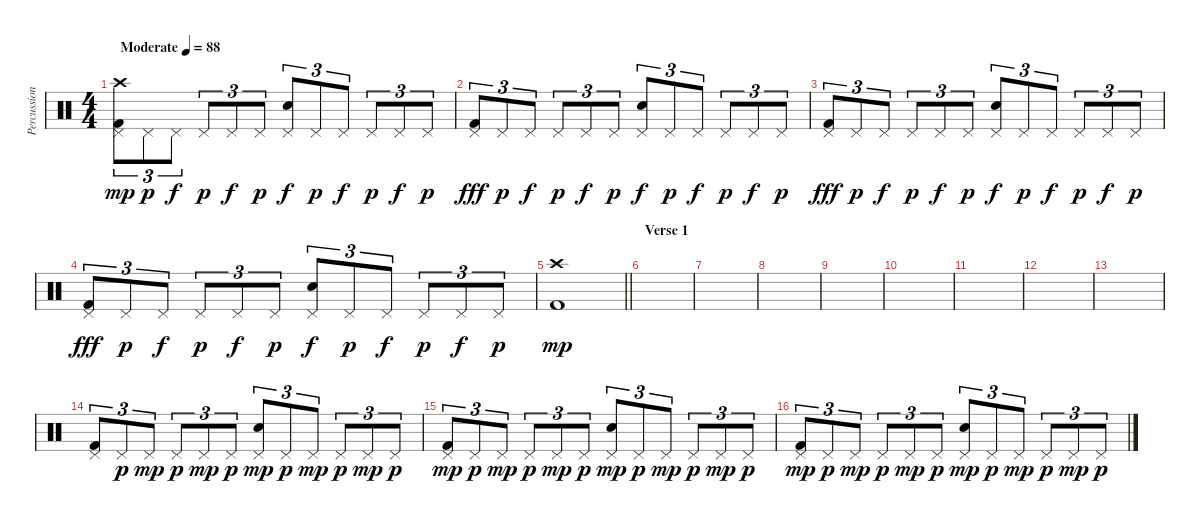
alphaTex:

\track ("Percussion" "Percussion") {instrument percussion}
\staff {score}
\articulation defaults
\ts (4 4)
\tempo (88 "Moderate")
\clef neutral
\ks c
("Kick (hit) 2" "Pedal Hi-Hat (hit)" "Crash high (hit)").8{tu (3 2) dy mp} "Pedal Hi-Hat (hit)".8{tu (3 2) dy p} "Pedal Hi-Hat (hit)".8{tu (3 2) dy f} "Pedal Hi-Hat (hit)".8{tu (3 2) dy p} "Pedal Hi-Hat (hit)".8{tu (3 2) dy f} "Pedal Hi-Hat (hit)".8{tu (3 2) dy p} ("Electric Snare (hit)" "Pedal Hi-Hat (hit)").8{tu (3 2) dy f} "Pedal Hi-Hat (hit)".8{tu (3 2) dy p} "Pedal Hi-Hat (hit)".8{tu (3 2) dy f} "Pedal Hi-Hat (hit)".8{tu (3 2) dy p} "Pedal Hi-Hat (hit)".8{tu (3 2) dy f} "Pedal Hi-Hat (hit)".8{tu (3 2) dy p} |
("Kick (hit) 2" "Pedal Hi-Hat (hit)").8{tu (3 2) dy fff} "Pedal Hi-Hat (hit)".8{tu (3 2) dy p} "Pedal Hi-Hat (hit)".8{tu (3 2) dy f} "Pedal Hi-Hat (hit)".8{tu (3 2) dy p} "Pedal Hi-Hat (hit)".8{tu (3 2) dy f} "Pedal Hi-Hat (hit)".8{tu (3 2) dy p} ("Electric Snare (hit)" "Pedal Hi-Hat (hit)").8{tu (3 2) dy f} "Pedal Hi-Hat (hit)".8{tu (3 2) dy p} "Pedal Hi-Hat (hit)".8{tu (3 2) dy f} "Pedal Hi-Hat (hit)".8{tu (3 2) dy p} "Pedal Hi-Hat (hit)".8{tu (3 2) dy f} "Pedal Hi-Hat (hit)".8{tu (3 2) dy p} |
("Kick (hit) 2" "Pedal Hi-Hat (hit)").8{tu (3 2) dy fff} "Pedal Hi-Hat (hit)".8{tu (3 2) dy p} "Pedal Hi-Hat (hit)".8{tu (3 2) dy f} "Pedal Hi-Hat (hit)".8{tu (3 2) dy p} "Pedal Hi-Hat (hit)".8{tu (3 2) dy f} "Pedal Hi-Hat (hit)".8{tu (3 2) dy p} ("Electric Snare (hit)" "Pedal Hi-Hat (hit)").8{tu (3 2) dy f} "Pedal Hi-Hat (hit)".8{tu (3 2) dy p} "Pedal Hi-Hat (hit)".8{tu (3 2) dy f} "Pedal Hi-Hat (hit)".8{tu (3 2) dy p} "Pedal Hi-Hat (hit)".8{tu (3 2) dy f} "Pedal Hi-Hat (hit)".8{tu (3 2) dy p} |
("Kick (hit) 2" "Pedal Hi-Hat (hit)").8{tu (3 2) dy fff} "Pedal Hi-Hat (hit)".8{tu (3 2) dy p} "Pedal Hi-Hat (hit)".8{tu (3 2) dy f} "Pedal Hi-Hat (hit)".8{tu (3 2) dy p} "Pedal Hi-Hat (hit)".8{tu (3 2) dy f} "Pedal Hi-Hat (hit)".8{tu (3 2) dy p} ("Electric Snare (hit)" "Pedal Hi-Hat (hit)").8{tu (3 2) dy f} "Pedal Hi-Hat (hit)".8{tu (3 2) dy p} "Pedal Hi-Hat (hit)".8{tu (3 2) dy f} "Pedal Hi-Hat (hit)".8{tu (3 2) dy p} "Pedal Hi-Hat (hit)".8{tu (3 2) dy f} "Pedal Hi-Hat (hit)".8{tu (3 2) dy p} |
\barLineRight lightlight
("Kick (hit) 2" "Crash high (hit)").1{dy mp} |
\section ("" "Verse 1")
|
|
|
|
|
|
|
|
("Kick (hit) 2" "Pedal Hi-Hat (hit)").8{tu (3 2)} "Pedal Hi-Hat (hit)".8{tu (3 2) dy p} "Pedal Hi-Hat (hit)".8{tu (3 2) dy mp} "Pedal Hi-Hat (hit)".8{tu (3 2) dy p} "Pedal Hi-Hat (hit)".8{tu (3 2) dy mp} "Pedal Hi-Hat (hit)".8{tu (3 2) dy p} ("Electric Snare (hit)" "Pedal Hi-Hat (hit)").8{tu (3 2) dy mp} "Pedal Hi-Hat (hit)".8{tu (3 2) dy p} "Pedal Hi-Hat (hit)".8{tu (3 2) dy mp} "Pedal Hi-Hat (hit)".8{tu (3 2) dy p} "Pedal Hi-Hat (hit)".8{tu (3 2) dy mp} "Pedal Hi-Hat (hit)".8{tu (3 2) dy p} |
("Kick (hit) 2" "Pedal Hi-Hat (hit)").8{tu (3 2) dy mp} "Pedal Hi-Hat (hit)".8{tu (3 2) dy p} "Pedal Hi-Hat (hit)".8{tu (3 2) dy mp} "Pedal Hi-Hat (hit)".8{tu (3 2) dy p} "Pedal Hi-Hat (hit)".8{tu (3 2) dy mp} "Pedal Hi-Hat (hit)".8{tu (3 2) dy p} ("Electric Snare (hit)" "Pedal Hi-Hat (hit)").8{tu (3 2) dy mp} "Pedal Hi-Hat (hit)".8{tu (3 2) dy p} "Pedal Hi-Hat (hit)".8{tu (3 2) dy mp} "Pedal Hi-Hat (hit)".8{tu (3 2) dy p} "Pedal Hi-Hat (hit)".8{tu (3 2) dy mp} "Pedal Hi-Hat (hit)".8{tu (3 2) dy p} |
("Kick (hit) 2" "Pedal Hi-Hat (hit)").8{tu (3 2) dy mp} "Pedal Hi-Hat (hit)".8{tu (3 2) dy p} "Pedal Hi-Hat (hit)".8{tu (3 2) dy mp} "Pedal Hi-Hat (hit)".8{tu (3 2) dy p} "Pedal Hi-Hat (hit)".8{tu (3 2) dy mp} "Pedal Hi-Hat (hit)".8{tu (3 2) dy p} ("Electric Snare (hit)" "Pedal Hi-Hat (hit)").8{tu (3 2) dy mp} "Pedal Hi-Hat (hit)".8{tu (3 2) dy p} "Pedal Hi-Hat (hit)".8{tu (3 2) dy mp} "Pedal Hi-Hat (hit)".8{tu (3 2) dy p} "Pedal Hi-Hat (hit)".8{tu (3 2) dy mp} "Pedal Hi-Hat (hit)".8{tu (3 2) dy p}
